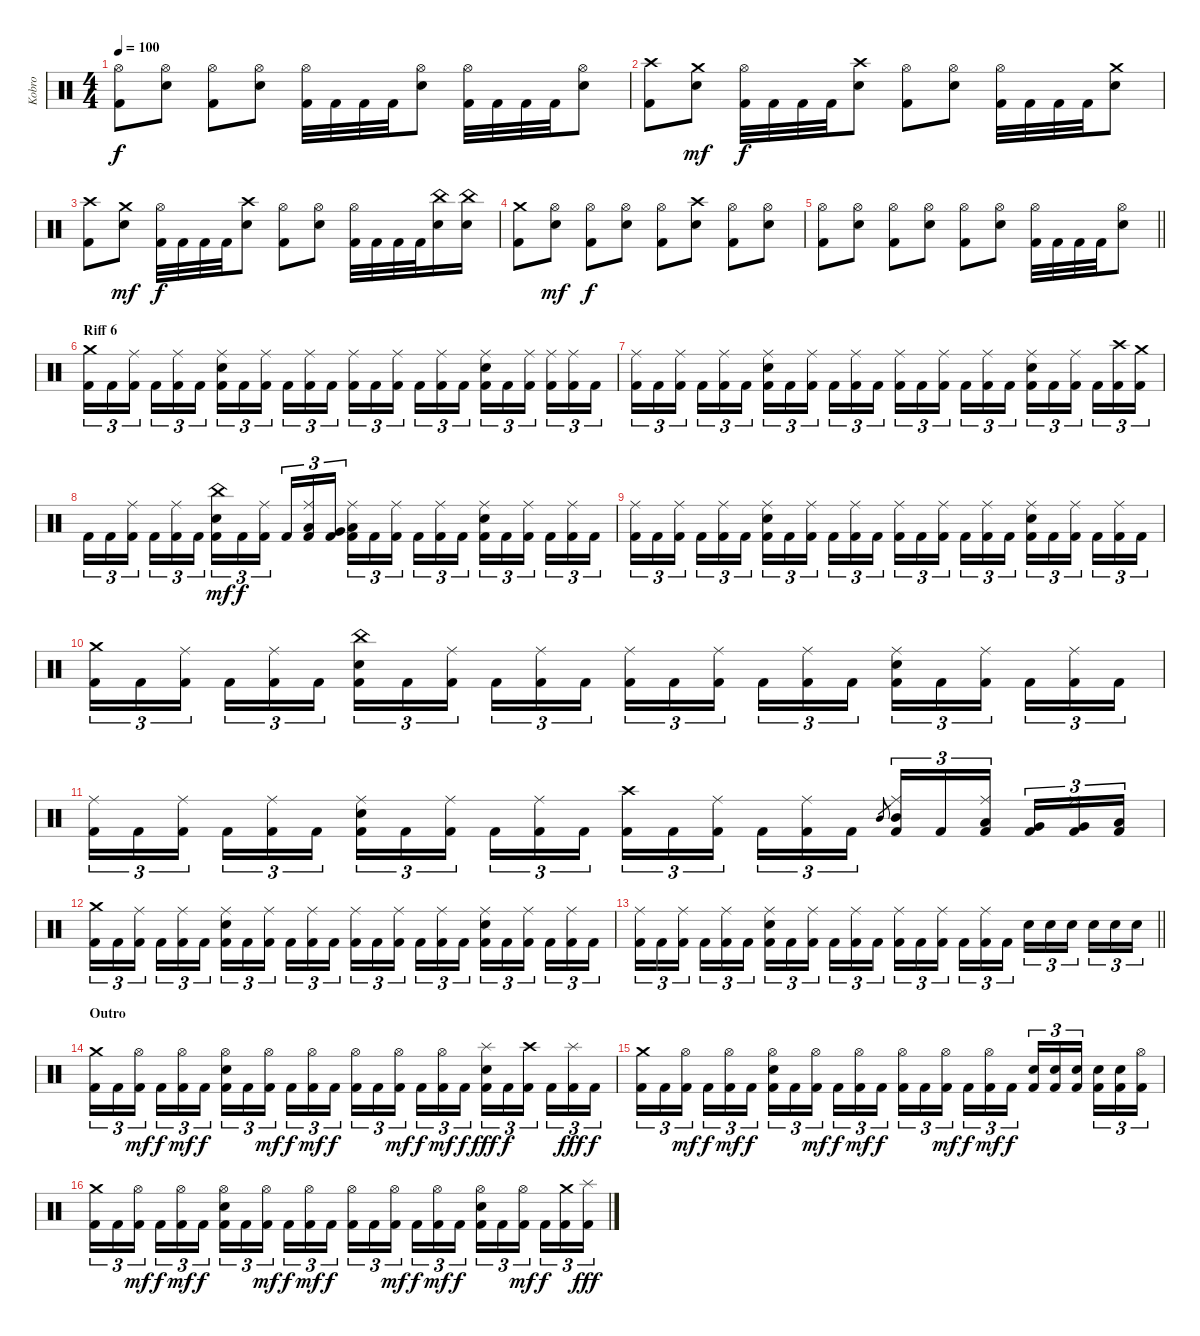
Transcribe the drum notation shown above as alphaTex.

\track ("Kobro" "Kobro") {instrument percussion}
\staff {score}
\articulation defaults
\ts (4 4)
\tempo 100
\clef neutral
\ks c
("Hi-Hat (open)" "Kick (hit) 2").8{dy f} ("Hi-Hat (open)" "Electric Snare (hit)").8 ("Hi-Hat (open)" "Kick (hit) 2").8 ("Hi-Hat (open)" "Electric Snare (hit)").8 ("Hi-Hat (open)" "Kick (hit) 2").32 "Kick (hit) 2".32 "Kick (hit) 2".32 "Kick (hit) 2".32 ("Hi-Hat (open)" "Electric Snare (hit)").8 ("Hi-Hat (open)" "Kick (hit) 2").32 "Kick (hit) 2".32 "Kick (hit) 2".32 "Kick (hit) 2".32 ("Hi-Hat (open)" "Electric Snare (hit)").8 |
("Crash high (hit)" "Kick (hit) 2").8 ("Crash medium (hit)" "Electric Snare (hit)").8{dy mf} ("Hi-Hat (open)" "Kick (hit) 2").32{dy f} "Kick (hit) 2".32 "Kick (hit) 2".32 "Kick (hit) 2".32 ("Crash high (hit)" "Electric Snare (hit)").8 ("Hi-Hat (open)" "Kick (hit) 2").8 ("Hi-Hat (open)" "Electric Snare (hit)").8 ("Hi-Hat (open)" "Kick (hit) 2").32 "Kick (hit) 2".32 "Kick (hit) 2".32 "Kick (hit) 2".32 ("Crash medium (hit)" "Electric Snare (hit)").8 |
("Crash high (hit)" "Kick (hit) 2").8 ("Crash medium (hit)" "Electric Snare (hit)").8{dy mf} ("Hi-Hat (open)" "Kick (hit) 2").32{dy f} "Kick (hit) 2".32 "Kick (hit) 2".32 "Kick (hit) 2".32 ("Crash high (hit)" "Electric Snare (hit)").8 ("Hi-Hat (open)" "Kick (hit) 2").8 ("Hi-Hat (open)" "Electric Snare (hit)").8 ("Hi-Hat (open)" "Kick (hit) 2").32 "Kick (hit) 2".32 "Kick (hit) 2".32 "Kick (hit) 2".32 ("China (hit)" "Electric Snare (hit)").16 ("China (hit)" "Electric Snare (hit)").16 |
("Crash medium (hit)" "Kick (hit) 2").8 ("Hi-Hat (open)" "Electric Snare (hit)").8{dy mf} ("Hi-Hat (open)" "Kick (hit) 2").8{dy f} ("Hi-Hat (open)" "Electric Snare (hit)").8 ("Hi-Hat (open)" "Kick (hit) 2").8 ("Crash high (hit)" "Electric Snare (hit)").8 ("Hi-Hat (open)" "Kick (hit) 2").8 ("Hi-Hat (open)" "Electric Snare (hit)").8 |
\barLineRight lightlight
("Hi-Hat (open)" "Kick (hit) 2").8 ("Hi-Hat (open)" "Electric Snare (hit)").8 ("Hi-Hat (open)" "Kick (hit) 2").8 ("Hi-Hat (open)" "Electric Snare (hit)").8 ("Hi-Hat (open)" "Kick (hit) 2").8 ("Hi-Hat (open)" "Electric Snare (hit)").8 ("Hi-Hat (open)" "Kick (hit) 2").32 "Kick (hit) 2".32 "Kick (hit) 2".32 "Kick (hit) 2".32 ("Hi-Hat (open)" "Electric Snare (hit)").8 |
\section ("" "Riff 6")
("Crash medium (hit)" "Kick (hit) 2").16{tu (3 2)} "Kick (hit) 2".16{tu (3 2)} ("Ride (middle)" "Kick (hit) 2").16{tu (3 2)} "Kick (hit) 2".16{tu (3 2)} ("Ride (middle)" "Kick (hit) 2").16{tu (3 2)} "Kick (hit) 2".16{tu (3 2)} ("Ride (middle)" "Electric Snare (hit)" "Kick (hit) 2").16{tu (3 2)} "Kick (hit) 2".16{tu (3 2)} ("Ride (middle)" "Kick (hit) 2").16{tu (3 2)} "Kick (hit) 2".16{tu (3 2)} ("Ride (middle)" "Kick (hit) 2").16{tu (3 2)} "Kick (hit) 2".16{tu (3 2)} ("Ride (middle)" "Kick (hit) 2").16{tu (3 2)} "Kick (hit) 2".16{tu (3 2)} ("Ride (middle)" "Kick (hit) 2").16{tu (3 2)} "Kick (hit) 2".16{tu (3 2)} ("Ride (middle)" "Kick (hit) 2").16{tu (3 2)} "Kick (hit) 2".16{tu (3 2)} ("Ride (middle)" "Electric Snare (hit)" "Kick (hit) 2").16{tu (3 2)} "Kick (hit) 2".16{tu (3 2)} ("Ride (middle)" "Kick (hit) 2").16{tu (3 2)} ("Ride (middle)" "Kick (hit) 2").16{tu (3 2)} ("Ride (middle)" "Kick (hit) 2").16{tu (3 2)} "Kick (hit) 2".16{tu (3 2)} |
("Ride (middle)" "Kick (hit) 2").16{tu (3 2)} "Kick (hit) 2".16{tu (3 2)} ("Ride (middle)" "Kick (hit) 2").16{tu (3 2)} "Kick (hit) 2".16{tu (3 2)} ("Ride (middle)" "Kick (hit) 2").16{tu (3 2)} "Kick (hit) 2".16{tu (3 2)} ("Ride (middle)" "Electric Snare (hit)" "Kick (hit) 2").16{tu (3 2)} "Kick (hit) 2".16{tu (3 2)} ("Ride (middle)" "Kick (hit) 2").16{tu (3 2)} "Kick (hit) 2".16{tu (3 2)} ("Ride (middle)" "Kick (hit) 2").16{tu (3 2)} "Kick (hit) 2".16{tu (3 2)} ("Ride (middle)" "Kick (hit) 2").16{tu (3 2)} "Kick (hit) 2".16{tu (3 2)} ("Ride (middle)" "Kick (hit) 2").16{tu (3 2)} "Kick (hit) 2".16{tu (3 2)} ("Ride (middle)" "Kick (hit) 2").16{tu (3 2)} "Kick (hit) 2".16{tu (3 2)} ("Ride (middle)" "Electric Snare (hit)" "Kick (hit) 2").16{tu (3 2)} "Kick (hit) 2".16{tu (3 2)} ("Ride (middle)" "Kick (hit) 2").16{tu (3 2)} "Kick (hit) 2".16{tu (3 2)} ("Crash high (hit)" "Kick (hit) 2").16{tu (3 2)} ("Crash medium (hit)" "Kick (hit) 2").16{tu (3 2)} |
"Kick (hit) 2".16{tu (3 2)} "Kick (hit) 2".16{tu (3 2)} ("Ride (middle)" "Kick (hit) 2").16{tu (3 2)} "Kick (hit) 2".16{tu (3 2)} ("Ride (middle)" "Kick (hit) 2").16{tu (3 2)} "Kick (hit) 2".16{tu (3 2)} ("China (hit)" "Electric Snare (hit)" "Kick (hit) 2").16{tu (3 2) dy mf} "Kick (hit) 2".16{tu (3 2) dy f} ("Ride (middle)" "Kick (hit) 2").16{tu (3 2)} "Kick (hit) 2".16{tu (3 2)} ("Ride (middle)" "Low Tom (hit)" "Kick (hit) 2").16{tu (3 2)} ("Very Low Tom (hit)" "Kick (hit) 2").16{tu (3 2)} ("Ride (middle)" "Low Tom (hit)" "Kick (hit) 2").16{tu (3 2)} "Kick (hit) 2".16{tu (3 2)} ("Ride (middle)" "Kick (hit) 2").16{tu (3 2)} "Kick (hit) 2".16{tu (3 2)} ("Ride (middle)" "Kick (hit) 2").16{tu (3 2)} "Kick (hit) 2".16{tu (3 2)} ("Ride (middle)" "Electric Snare (hit)" "Kick (hit) 2").16{tu (3 2)} "Kick (hit) 2".16{tu (3 2)} ("Ride (middle)" "Kick (hit) 2").16{tu (3 2)} "Kick (hit) 2".16{tu (3 2)} ("Ride (middle)" "Kick (hit) 2").16{tu (3 2)} "Kick (hit) 2".16{tu (3 2)} |
("Ride (middle)" "Kick (hit) 2").16{tu (3 2)} "Kick (hit) 2".16{tu (3 2)} ("Ride (middle)" "Kick (hit) 2").16{tu (3 2)} "Kick (hit) 2".16{tu (3 2)} ("Ride (middle)" "Kick (hit) 2").16{tu (3 2)} "Kick (hit) 2".16{tu (3 2)} ("Ride (middle)" "Electric Snare (hit)" "Kick (hit) 2").16{tu (3 2)} "Kick (hit) 2".16{tu (3 2)} ("Ride (middle)" "Kick (hit) 2").16{tu (3 2)} "Kick (hit) 2".16{tu (3 2)} ("Ride (middle)" "Kick (hit) 2").16{tu (3 2)} "Kick (hit) 2".16{tu (3 2)} ("Ride (middle)" "Kick (hit) 2").16{tu (3 2)} "Kick (hit) 2".16{tu (3 2)} ("Ride (middle)" "Kick (hit) 2").16{tu (3 2)} "Kick (hit) 2".16{tu (3 2)} ("Ride (middle)" "Kick (hit) 2").16{tu (3 2)} "Kick (hit) 2".16{tu (3 2)} ("Ride (middle)" "Electric Snare (hit)" "Kick (hit) 2").16{tu (3 2)} "Kick (hit) 2".16{tu (3 2)} ("Ride (middle)" "Kick (hit) 2").16{tu (3 2)} "Kick (hit) 2".16{tu (3 2)} ("Ride (middle)" "Kick (hit) 2").16{tu (3 2)} "Kick (hit) 2".16{tu (3 2)} |
("Crash medium (hit)" "Kick (hit) 2").16{tu (3 2)} "Kick (hit) 2".16{tu (3 2)} ("Ride (middle)" "Kick (hit) 2").16{tu (3 2)} "Kick (hit) 2".16{tu (3 2)} ("Ride (middle)" "Kick (hit) 2").16{tu (3 2)} "Kick (hit) 2".16{tu (3 2)} ("China (hit)" "Electric Snare (hit)" "Kick (hit) 2").16{tu (3 2)} "Kick (hit) 2".16{tu (3 2)} ("Ride (middle)" "Kick (hit) 2").16{tu (3 2)} "Kick (hit) 2".16{tu (3 2)} ("Ride (middle)" "Kick (hit) 2").16{tu (3 2)} "Kick (hit) 2".16{tu (3 2)} ("Ride (middle)" "Kick (hit) 2").16{tu (3 2)} "Kick (hit) 2".16{tu (3 2)} ("Ride (middle)" "Kick (hit) 2").16{tu (3 2)} "Kick (hit) 2".16{tu (3 2)} ("Ride (middle)" "Kick (hit) 2").16{tu (3 2)} "Kick (hit) 2".16{tu (3 2)} ("Ride (middle)" "Electric Snare (hit)" "Kick (hit) 2").16{tu (3 2)} "Kick (hit) 2".16{tu (3 2)} ("Ride (middle)" "Kick (hit) 2").16{tu (3 2)} "Kick (hit) 2".16{tu (3 2)} ("Ride (middle)" "Kick (hit) 2").16{tu (3 2)} "Kick (hit) 2".16{tu (3 2)} |
("Ride (middle)" "Kick (hit) 2").16{tu (3 2)} "Kick (hit) 2".16{tu (3 2)} ("Ride (middle)" "Kick (hit) 2").16{tu (3 2)} "Kick (hit) 2".16{tu (3 2)} ("Ride (middle)" "Kick (hit) 2").16{tu (3 2)} "Kick (hit) 2".16{tu (3 2)} ("Ride (middle)" "Electric Snare (hit)" "Kick (hit) 2").16{tu (3 2)} "Kick (hit) 2".16{tu (3 2)} ("Ride (middle)" "Kick (hit) 2").16{tu (3 2)} "Kick (hit) 2".16{tu (3 2)} ("Ride (middle)" "Kick (hit) 2").16{tu (3 2)} "Kick (hit) 2".16{tu (3 2)} ("Crash high (hit)" "Kick (hit) 2").16{tu (3 2)} "Kick (hit) 2".16{tu (3 2)} ("Ride (middle)" "Kick (hit) 2").16{tu (3 2)} "Kick (hit) 2".16{tu (3 2)} ("Ride (middle)" "Kick (hit) 2").16{tu (3 2)} "Kick (hit) 2".16{tu (3 2)} "Mid Tom (hit)".8{gr} ("Ride (middle)" "Mid Tom (hit)" "Kick (hit) 2").16{tu (3 2)} "Kick (hit) 2".16{tu (3 2)} ("Ride (middle)" "Low Tom (hit)" "Kick (hit) 2").16{tu (3 2)} ("Very Low Tom (hit)" "Kick (hit) 2").16{tu (3 2)} ("Ride (middle)" "Very Low Tom (hit)" "Kick (hit) 2").16{tu (3 2)} ("Low Floor Tom (hit)" "Kick (hit) 2").16{tu (3 2)} |
("Crash medium (hit)" "Kick (hit) 2").16{tu (3 2)} "Kick (hit) 2".16{tu (3 2)} ("Ride (middle)" "Kick (hit) 2").16{tu (3 2)} "Kick (hit) 2".16{tu (3 2)} ("Ride (middle)" "Kick (hit) 2").16{tu (3 2)} "Kick (hit) 2".16{tu (3 2)} ("Ride (middle)" "Electric Snare (hit)" "Kick (hit) 2").16{tu (3 2)} "Kick (hit) 2".16{tu (3 2)} ("Ride (middle)" "Kick (hit) 2").16{tu (3 2)} "Kick (hit) 2".16{tu (3 2)} ("Ride (middle)" "Kick (hit) 2").16{tu (3 2)} "Kick (hit) 2".16{tu (3 2)} ("Ride (middle)" "Kick (hit) 2").16{tu (3 2)} "Kick (hit) 2".16{tu (3 2)} ("Ride (middle)" "Kick (hit) 2").16{tu (3 2)} "Kick (hit) 2".16{tu (3 2)} ("Ride (middle)" "Kick (hit) 2").16{tu (3 2)} "Kick (hit) 2".16{tu (3 2)} ("Ride (middle)" "Electric Snare (hit)" "Kick (hit) 2").16{tu (3 2)} "Kick (hit) 2".16{tu (3 2)} ("Ride (middle)" "Kick (hit) 2").16{tu (3 2)} "Kick (hit) 2".16{tu (3 2)} ("Ride (middle)" "Kick (hit) 2").16{tu (3 2)} "Kick (hit) 2".16{tu (3 2)} |
\barLineRight lightlight
("Ride (middle)" "Kick (hit) 2").16{tu (3 2)} "Kick (hit) 2".16{tu (3 2)} ("Ride (middle)" "Kick (hit) 2").16{tu (3 2)} "Kick (hit) 2".16{tu (3 2)} ("Ride (middle)" "Kick (hit) 2").16{tu (3 2)} "Kick (hit) 2".16{tu (3 2)} ("Ride (middle)" "Electric Snare (hit)" "Kick (hit) 2").16{tu (3 2)} "Kick (hit) 2".16{tu (3 2)} ("Ride (middle)" "Kick (hit) 2").16{tu (3 2)} "Kick (hit) 2".16{tu (3 2)} ("Ride (middle)" "Kick (hit) 2").16{tu (3 2)} "Kick (hit) 2".16{tu (3 2)} ("Ride (middle)" "Kick (hit) 2").16{tu (3 2)} "Kick (hit) 2".16{tu (3 2)} ("Ride (middle)" "Kick (hit) 2").16{tu (3 2)} "Kick (hit) 2".16{tu (3 2)} ("Ride (middle)" "Kick (hit) 2").16{tu (3 2)} "Kick (hit) 2".16{tu (3 2)} "Electric Snare (hit)".16{tu (3 2)} "Electric Snare (hit)".16{tu (3 2)} "Electric Snare (hit)".16{tu (3 2)} "Electric Snare (hit)".16{tu (3 2)} "Electric Snare (hit)".16{tu (3 2)} "Electric Snare (hit)".16{tu (3 2)} |
\section ("" "Outro")
("Crash medium (hit)" "Kick (hit) 2").16{tu (3 2)} "Kick (hit) 2".16{tu (3 2)} ("Hi-Hat (open)" "Kick (hit) 2").16{tu (3 2) dy mf} "Kick (hit) 2".16{tu (3 2) dy f} ("Hi-Hat (open)" "Kick (hit) 2").16{tu (3 2) dy mf} "Kick (hit) 2".16{tu (3 2) dy f} ("Hi-Hat (open)" "Electric Snare (hit)" "Kick (hit) 2").16{tu (3 2)} "Kick (hit) 2".16{tu (3 2)} ("Hi-Hat (open)" "Kick (hit) 2").16{tu (3 2) dy mf} "Kick (hit) 2".16{tu (3 2) dy f} ("Hi-Hat (open)" "Kick (hit) 2").16{tu (3 2) dy mf} "Kick (hit) 2".16{tu (3 2) dy f} ("Hi-Hat (open)" "Kick (hit) 2").16{tu (3 2)} "Kick (hit) 2".16{tu (3 2)} ("Hi-Hat (open)" "Kick (hit) 2").16{tu (3 2) dy mf} "Kick (hit) 2".16{tu (3 2) dy f} ("Hi-Hat (open)" "Kick (hit) 2").16{tu (3 2) dy mf} "Kick (hit) 2".16{tu (3 2) dy f} ("Splash (hit)" "Electric Snare (hit)" "Kick (hit) 2").16{tu (3 2) dy fff} "Kick (hit) 2".16{tu (3 2) dy f} ("Crash high (hit)" "Kick (hit) 2").16{tu (3 2)} "Kick (hit) 2".16{tu (3 2)} ("Splash (hit)" "Kick (hit) 2").16{tu (3 2) dy fff} "Kick (hit) 2".16{tu (3 2) dy f} |
("Crash medium (hit)" "Kick (hit) 2").16{tu (3 2)} "Kick (hit) 2".16{tu (3 2)} ("Hi-Hat (open)" "Kick (hit) 2").16{tu (3 2) dy mf} "Kick (hit) 2".16{tu (3 2) dy f} ("Hi-Hat (open)" "Kick (hit) 2").16{tu (3 2) dy mf} "Kick (hit) 2".16{tu (3 2) dy f} ("Hi-Hat (open)" "Electric Snare (hit)" "Kick (hit) 2").16{tu (3 2)} "Kick (hit) 2".16{tu (3 2)} ("Hi-Hat (open)" "Kick (hit) 2").16{tu (3 2) dy mf} "Kick (hit) 2".16{tu (3 2) dy f} ("Hi-Hat (open)" "Kick (hit) 2").16{tu (3 2) dy mf} "Kick (hit) 2".16{tu (3 2) dy f} ("Hi-Hat (open)" "Kick (hit) 2").16{tu (3 2)} "Kick (hit) 2".16{tu (3 2)} ("Hi-Hat (open)" "Kick (hit) 2").16{tu (3 2) dy mf} "Kick (hit) 2".16{tu (3 2) dy f} ("Hi-Hat (open)" "Kick (hit) 2").16{tu (3 2) dy mf} "Kick (hit) 2".16{tu (3 2) dy f} ("Electric Snare (hit)" "Kick (hit) 2").16{tu (3 2)} ("Electric Snare (hit)" "Kick (hit) 2").16{tu (3 2)} ("Electric Snare (hit)" "Kick (hit) 2").16{tu (3 2)} ("Electric Snare (hit)" "Kick (hit) 2").16{tu (3 2)} ("Electric Snare (hit)" "Kick (hit) 2").16{tu (3 2)} ("Hi-Hat (open)" "Kick (hit) 2").16{tu (3 2)} |
("Crash medium (hit)" "Kick (hit) 2").16{tu (3 2)} "Kick (hit) 2".16{tu (3 2)} ("Hi-Hat (open)" "Kick (hit) 2").16{tu (3 2) dy mf} "Kick (hit) 2".16{tu (3 2) dy f} ("Hi-Hat (open)" "Kick (hit) 2").16{tu (3 2) dy mf} "Kick (hit) 2".16{tu (3 2) dy f} ("Hi-Hat (open)" "Electric Snare (hit)" "Kick (hit) 2").16{tu (3 2)} "Kick (hit) 2".16{tu (3 2)} ("Hi-Hat (open)" "Kick (hit) 2").16{tu (3 2) dy mf} "Kick (hit) 2".16{tu (3 2) dy f} ("Hi-Hat (open)" "Kick (hit) 2").16{tu (3 2) dy mf} "Kick (hit) 2".16{tu (3 2) dy f} ("Hi-Hat (open)" "Kick (hit) 2").16{tu (3 2)} "Kick (hit) 2".16{tu (3 2)} ("Hi-Hat (open)" "Kick (hit) 2").16{tu (3 2) dy mf} "Kick (hit) 2".16{tu (3 2) dy f} ("Hi-Hat (open)" "Kick (hit) 2").16{tu (3 2) dy mf} "Kick (hit) 2".16{tu (3 2) dy f} ("Hi-Hat (open)" "Electric Snare (hit)" "Kick (hit) 2").16{tu (3 2)} "Kick (hit) 2".16{tu (3 2)} ("Hi-Hat (open)" "Kick (hit) 2").16{tu (3 2) dy mf} "Kick (hit) 2".16{tu (3 2) dy f} ("Crash medium (hit)" "Kick (hit) 2").16{tu (3 2)} ("Splash (hit)" "Kick (hit) 2").16{tu (3 2) dy fff}
